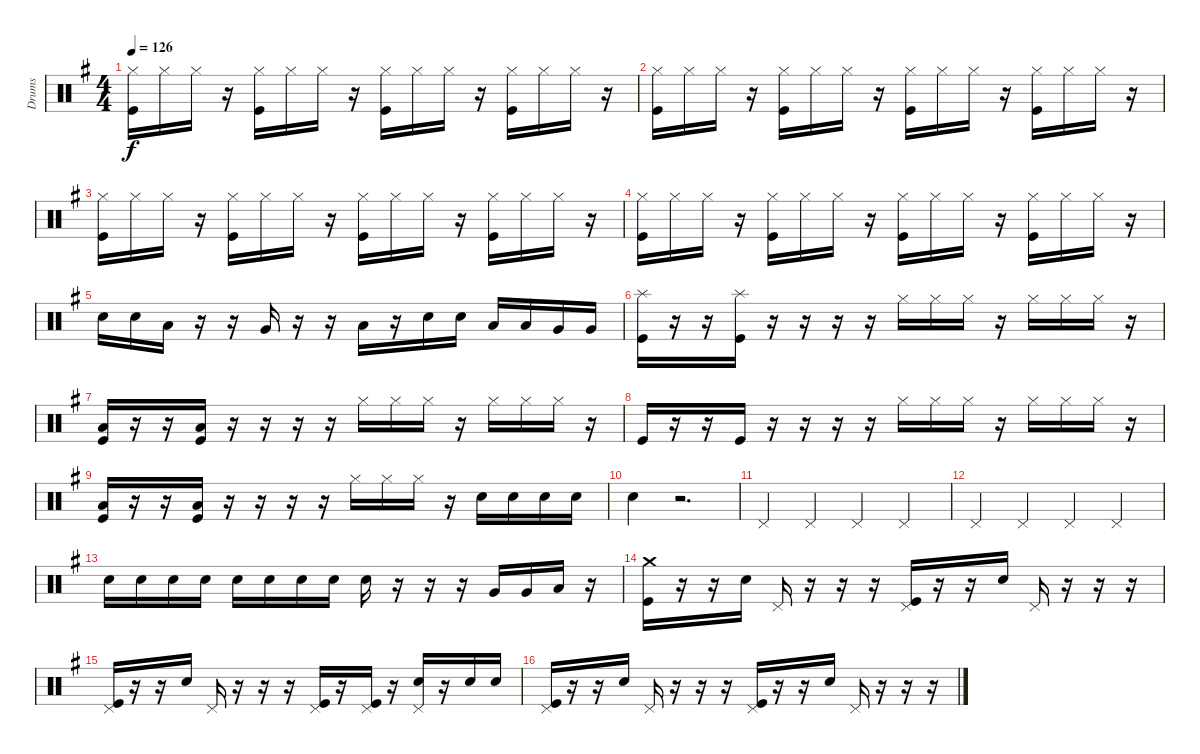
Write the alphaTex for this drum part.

\track ("Drums" "Drums") {instrument percussion}
\staff {score}
\articulation defaults
\ts (4 4)
\tempo 126
\clef neutral
\ks g
("Kick (hit)" "Hi-Hat (closed)").16{dy f} "Hi-Hat (closed)".16 "Hi-Hat (closed)".16 r.16 ("Kick (hit)" "Hi-Hat (closed)").16 "Hi-Hat (closed)".16 "Hi-Hat (closed)".16 r.16 ("Kick (hit)" "Hi-Hat (closed)").16 "Hi-Hat (closed)".16 "Hi-Hat (closed)".16 r.16 ("Kick (hit)" "Hi-Hat (closed)").16 "Hi-Hat (closed)".16 "Hi-Hat (closed)".16 r.16 |
("Kick (hit)" "Hi-Hat (closed)").16 "Hi-Hat (closed)".16 "Hi-Hat (closed)".16 r.16 ("Kick (hit)" "Hi-Hat (closed)").16 "Hi-Hat (closed)".16 "Hi-Hat (closed)".16 r.16 ("Kick (hit)" "Hi-Hat (closed)").16 "Hi-Hat (closed)".16 "Hi-Hat (closed)".16 r.16 ("Kick (hit)" "Hi-Hat (closed)").16 "Hi-Hat (closed)".16 "Hi-Hat (closed)".16 r.16 |
("Kick (hit)" "Hi-Hat (closed)").16 "Hi-Hat (closed)".16 "Hi-Hat (closed)".16 r.16 ("Kick (hit)" "Hi-Hat (closed)").16 "Hi-Hat (closed)".16 "Hi-Hat (closed)".16 r.16 ("Kick (hit)" "Hi-Hat (closed)").16 "Hi-Hat (closed)".16 "Hi-Hat (closed)".16 r.16 ("Kick (hit)" "Hi-Hat (closed)").16 "Hi-Hat (closed)".16 "Hi-Hat (closed)".16 r.16 |
("Kick (hit)" "Hi-Hat (closed)").16 "Hi-Hat (closed)".16 "Hi-Hat (closed)".16 r.16 ("Kick (hit)" "Hi-Hat (closed)").16 "Hi-Hat (closed)".16 "Hi-Hat (closed)".16 r.16 ("Kick (hit)" "Hi-Hat (closed)").16 "Hi-Hat (closed)".16 "Hi-Hat (closed)".16 r.16 ("Kick (hit)" "Hi-Hat (closed)").16 "Hi-Hat (closed)".16 "Hi-Hat (closed)".16 r.16 |
"Electric Snare (hit)".16 "Electric Snare (hit)".16 "Low Tom (hit)".16 r.16 r.16 "Very Low Tom (hit)".16 r.16 r.16 "Low Floor Tom (hit)".16 r.16 "Electric Snare (hit)".16 "Electric Snare (hit)".16 "Low Tom (hit)".16 "Low Tom (hit)".16 "Very Low Tom (hit)".16 "Very Low Tom (hit)".16 |
("Kick (hit)" "Splash (hit)").16 r.16 r.16 ("Kick (hit)" "Splash (hit)").16 r.16 r.16 r.16 r.16 "Hi-Hat (closed)".16 "Hi-Hat (closed)".16 "Hi-Hat (closed)".16 r.16 "Hi-Hat (closed)".16 "Hi-Hat (closed)".16 "Hi-Hat (closed)".16 r.16 |
("Kick (hit)" "Low Floor Tom (hit)").16 r.16 r.16 ("Kick (hit)" "Low Floor Tom (hit)").16 r.16 r.16 r.16 r.16 "Hi-Hat (closed)".16 "Hi-Hat (closed)".16 "Hi-Hat (closed)".16 r.16 "Hi-Hat (closed)".16 "Hi-Hat (closed)".16 "Hi-Hat (closed)".16 r.16 |
"Kick (hit)".16 r.16 r.16 "Kick (hit)".16 r.16 r.16 r.16 r.16 "Hi-Hat (closed)".16 "Hi-Hat (closed)".16 "Hi-Hat (closed)".16 r.16 "Hi-Hat (closed)".16 "Hi-Hat (closed)".16 "Hi-Hat (closed)".16 r.16 |
("Kick (hit)" "Low Floor Tom (hit)").16 r.16 r.16 ("Kick (hit)" "Low Floor Tom (hit)").16 r.16 r.16 r.16 r.16 "Hi-Hat (closed)".16 "Hi-Hat (closed)".16 "Hi-Hat (closed)".16 r.16 "Electric Snare (hit)".16 "Electric Snare (hit)".16 "Electric Snare (hit)".16 "Electric Snare (hit)".16 |
"Electric Snare (hit)".4 r.2{d} |
"Pedal Hi-Hat (hit)".4 "Pedal Hi-Hat (hit)".4 "Pedal Hi-Hat (hit)".4 "Pedal Hi-Hat (hit)".4 |
"Pedal Hi-Hat (hit)".4 "Pedal Hi-Hat (hit)".4 "Pedal Hi-Hat (hit)".4 "Pedal Hi-Hat (hit)".4 |
"Electric Snare (hit)".16 "Electric Snare (hit)".16 "Electric Snare (hit)".16 "Electric Snare (hit)".16 "Electric Snare (hit)".16 "Electric Snare (hit)".16 "Electric Snare (hit)".16 "Electric Snare (hit)".16 "Electric Snare (hit)".16 r.16 r.16 r.16 "Very Low Tom (hit)".16 "Very Low Tom (hit)".16 "Low Floor Tom (hit)".16 r.16 |
("Kick (hit)" "Crash medium (hit)").16 r.16 r.16 "Electric Snare (hit)".16 "Pedal Hi-Hat (hit)".16 r.16 r.16 r.16 ("Kick (hit)" "Pedal Hi-Hat (hit)").16 r.16 r.16 "Electric Snare (hit)".16 "Pedal Hi-Hat (hit)".16 r.16 r.16 r.16 |
("Kick (hit)" "Pedal Hi-Hat (hit)").16 r.16 r.16 "Electric Snare (hit)".16 "Pedal Hi-Hat (hit)".16 r.16 r.16 r.16 ("Kick (hit)" "Pedal Hi-Hat (hit)").16 r.16 ("Kick (hit)" "Pedal Hi-Hat (hit)").16 r.16 ("Electric Snare (hit)" "Pedal Hi-Hat (hit)").16 r.16 "Electric Snare (hit)".16 "Electric Snare (hit)".16 |
("Kick (hit)" "Pedal Hi-Hat (hit)").16 r.16 r.16 "Electric Snare (hit)".16 "Pedal Hi-Hat (hit)".16 r.16 r.16 r.16 ("Kick (hit)" "Pedal Hi-Hat (hit)").16 r.16 r.16 "Electric Snare (hit)".16 "Pedal Hi-Hat (hit)".16 r.16 r.16 r.16
